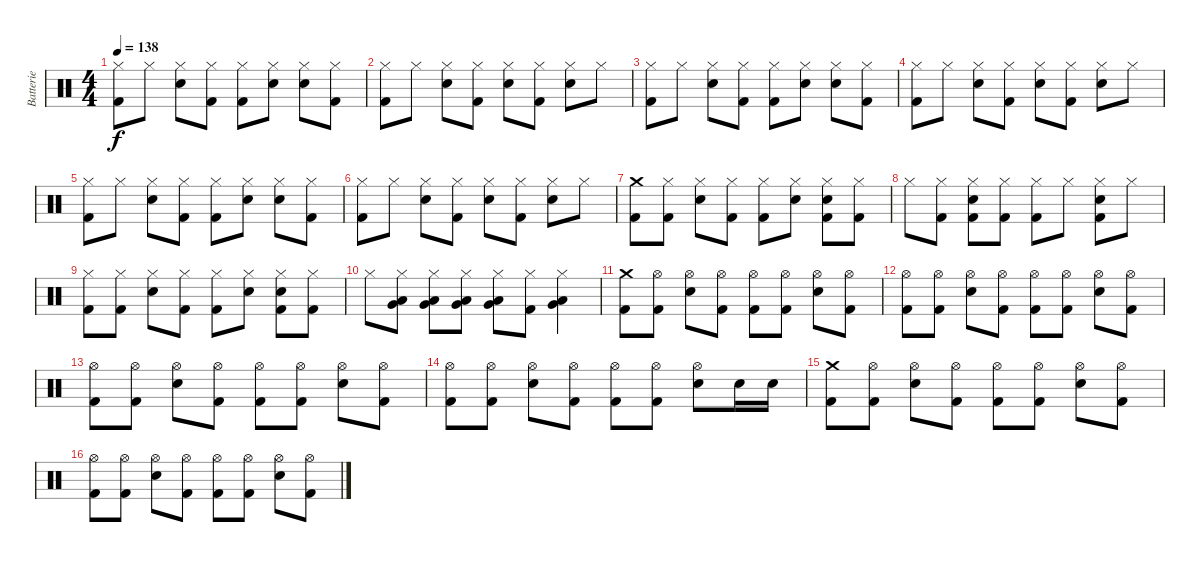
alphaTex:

\track ("Batterie" "Batterie") {instrument percussion}
\staff {score}
\articulation defaults
\ts (4 4)
\tempo 138
\clef neutral
\ks c
("Hi-Hat (closed)" "Kick (hit) 2").8{dy f} "Hi-Hat (closed)".8 ("Hi-Hat (closed)" "Electric Snare (hit)").8 ("Hi-Hat (closed)" "Kick (hit) 2").8 ("Hi-Hat (closed)" "Kick (hit) 2").8 ("Hi-Hat (closed)" "Electric Snare (hit)").8 ("Hi-Hat (closed)" "Electric Snare (hit)").8 ("Hi-Hat (closed)" "Kick (hit) 2").8 |
("Hi-Hat (closed)" "Kick (hit) 2").8 "Hi-Hat (closed)".8 ("Hi-Hat (closed)" "Electric Snare (hit)").8 ("Hi-Hat (closed)" "Kick (hit) 2").8 ("Hi-Hat (closed)" "Electric Snare (hit)").8 ("Hi-Hat (closed)" "Kick (hit) 2").8 ("Hi-Hat (closed)" "Electric Snare (hit)").8 "Hi-Hat (closed)".8 |
("Hi-Hat (closed)" "Kick (hit) 2").8 "Hi-Hat (closed)".8 ("Hi-Hat (closed)" "Electric Snare (hit)").8 ("Hi-Hat (closed)" "Kick (hit) 2").8 ("Hi-Hat (closed)" "Kick (hit) 2").8 ("Hi-Hat (closed)" "Electric Snare (hit)").8 ("Hi-Hat (closed)" "Electric Snare (hit)").8 ("Hi-Hat (closed)" "Kick (hit) 2").8 |
("Hi-Hat (closed)" "Kick (hit) 2").8 "Hi-Hat (closed)".8 ("Hi-Hat (closed)" "Electric Snare (hit)").8 ("Hi-Hat (closed)" "Kick (hit) 2").8 ("Hi-Hat (closed)" "Electric Snare (hit)").8 ("Hi-Hat (closed)" "Kick (hit) 2").8 ("Hi-Hat (closed)" "Electric Snare (hit)").8 "Hi-Hat (closed)".8 |
("Hi-Hat (closed)" "Kick (hit) 2").8 "Hi-Hat (closed)".8 ("Hi-Hat (closed)" "Electric Snare (hit)").8 ("Hi-Hat (closed)" "Kick (hit) 2").8 ("Hi-Hat (closed)" "Kick (hit) 2").8 ("Hi-Hat (closed)" "Electric Snare (hit)").8 ("Hi-Hat (closed)" "Electric Snare (hit)").8 ("Hi-Hat (closed)" "Kick (hit) 2").8 |
("Hi-Hat (closed)" "Kick (hit) 2").8 "Hi-Hat (closed)".8 ("Hi-Hat (closed)" "Electric Snare (hit)").8 ("Hi-Hat (closed)" "Kick (hit) 2").8 ("Hi-Hat (closed)" "Electric Snare (hit)").8 ("Hi-Hat (closed)" "Kick (hit) 2").8 ("Hi-Hat (closed)" "Electric Snare (hit)").8 "Hi-Hat (closed)".8 |
("Crash medium (hit)" "Kick (hit) 2").8 ("Hi-Hat (closed)" "Kick (hit) 2").8 ("Hi-Hat (closed)" "Electric Snare (hit)").8 ("Hi-Hat (closed)" "Kick (hit) 2").8 ("Hi-Hat (closed)" "Kick (hit) 2").8 ("Hi-Hat (closed)" "Electric Snare (hit)").8 ("Hi-Hat (closed)" "Electric Snare (hit)" "Kick (hit) 2").8 ("Hi-Hat (closed)" "Kick (hit) 2").8 |
"Hi-Hat (closed)".8 ("Hi-Hat (closed)" "Kick (hit) 2").8 ("Hi-Hat (closed)" "Electric Snare (hit)" "Kick (hit) 2").8 ("Hi-Hat (closed)" "Kick (hit) 2").8 ("Hi-Hat (closed)" "Kick (hit) 2").8 "Hi-Hat (closed)".8 ("Hi-Hat (closed)" "Electric Snare (hit)" "Kick (hit) 2").8 "Hi-Hat (closed)".8 |
("Hi-Hat (closed)" "Kick (hit) 2").8 ("Hi-Hat (closed)" "Kick (hit) 2").8 ("Hi-Hat (closed)" "Electric Snare (hit)").8 ("Hi-Hat (closed)" "Kick (hit) 2").8 ("Hi-Hat (closed)" "Kick (hit) 2").8 ("Hi-Hat (closed)" "Electric Snare (hit)").8 ("Hi-Hat (closed)" "Electric Snare (hit)" "Kick (hit) 2").8 ("Hi-Hat (closed)" "Kick (hit) 2").8 |
"Hi-Hat (closed)".8 ("Hi-Hat (closed)" "Low Tom (hit)" "Very Low Tom (hit)").8 ("Hi-Hat (closed)" "Low Tom (hit)" "Very Low Tom (hit)").8 ("Hi-Hat (closed)" "Very Low Tom (hit)" "Low Floor Tom (hit)").8 ("Hi-Hat (closed)" "Low Tom (hit)" "Very Low Tom (hit)").8 ("Hi-Hat (closed)" "Kick (hit) 2").8 ("Hi-Hat (closed)" "Very Low Tom (hit)" "Low Floor Tom (hit)").4 |
("Crash medium (hit)" "Kick (hit) 2").8 ("Hi-Hat (open)" "Kick (hit) 2").8 ("Hi-Hat (open)" "Electric Snare (hit)").8 ("Hi-Hat (open)" "Kick (hit) 2").8 ("Hi-Hat (open)" "Kick (hit) 2").8 ("Hi-Hat (open)" "Kick (hit) 2").8 ("Hi-Hat (open)" "Electric Snare (hit)").8 ("Hi-Hat (open)" "Kick (hit) 2").8 |
("Hi-Hat (open)" "Kick (hit) 2").8 ("Hi-Hat (open)" "Kick (hit) 2").8 ("Hi-Hat (open)" "Electric Snare (hit)").8 ("Hi-Hat (open)" "Kick (hit) 2").8 ("Hi-Hat (open)" "Kick (hit) 2").8 ("Hi-Hat (open)" "Kick (hit) 2").8 ("Hi-Hat (open)" "Electric Snare (hit)").8 ("Hi-Hat (open)" "Kick (hit) 2").8 |
("Hi-Hat (open)" "Kick (hit) 2").8 ("Hi-Hat (open)" "Kick (hit) 2").8 ("Hi-Hat (open)" "Electric Snare (hit)").8 ("Hi-Hat (open)" "Kick (hit) 2").8 ("Hi-Hat (open)" "Kick (hit) 2").8 ("Hi-Hat (open)" "Kick (hit) 2").8 ("Hi-Hat (open)" "Electric Snare (hit)").8 ("Hi-Hat (open)" "Kick (hit) 2").8 |
("Hi-Hat (open)" "Kick (hit) 2").8 ("Hi-Hat (open)" "Kick (hit) 2").8 ("Hi-Hat (open)" "Electric Snare (hit)").8 ("Hi-Hat (open)" "Kick (hit) 2").8 ("Hi-Hat (open)" "Kick (hit) 2").8 ("Hi-Hat (open)" "Kick (hit) 2").8 ("Hi-Hat (open)" "Electric Snare (hit)").8 "Electric Snare (hit)".16 "Electric Snare (hit)".16 |
("Crash medium (hit)" "Kick (hit) 2").8 ("Hi-Hat (open)" "Kick (hit) 2").8 ("Hi-Hat (open)" "Electric Snare (hit)").8 ("Hi-Hat (open)" "Kick (hit) 2").8 ("Hi-Hat (open)" "Kick (hit) 2").8 ("Hi-Hat (open)" "Kick (hit) 2").8 ("Hi-Hat (open)" "Electric Snare (hit)").8 ("Hi-Hat (open)" "Kick (hit) 2").8 |
("Hi-Hat (open)" "Kick (hit) 2").8 ("Hi-Hat (open)" "Kick (hit) 2").8 ("Hi-Hat (open)" "Electric Snare (hit)").8 ("Hi-Hat (open)" "Kick (hit) 2").8 ("Hi-Hat (open)" "Kick (hit) 2").8 ("Hi-Hat (open)" "Kick (hit) 2").8 ("Hi-Hat (open)" "Electric Snare (hit)").8 ("Hi-Hat (open)" "Kick (hit) 2").8
